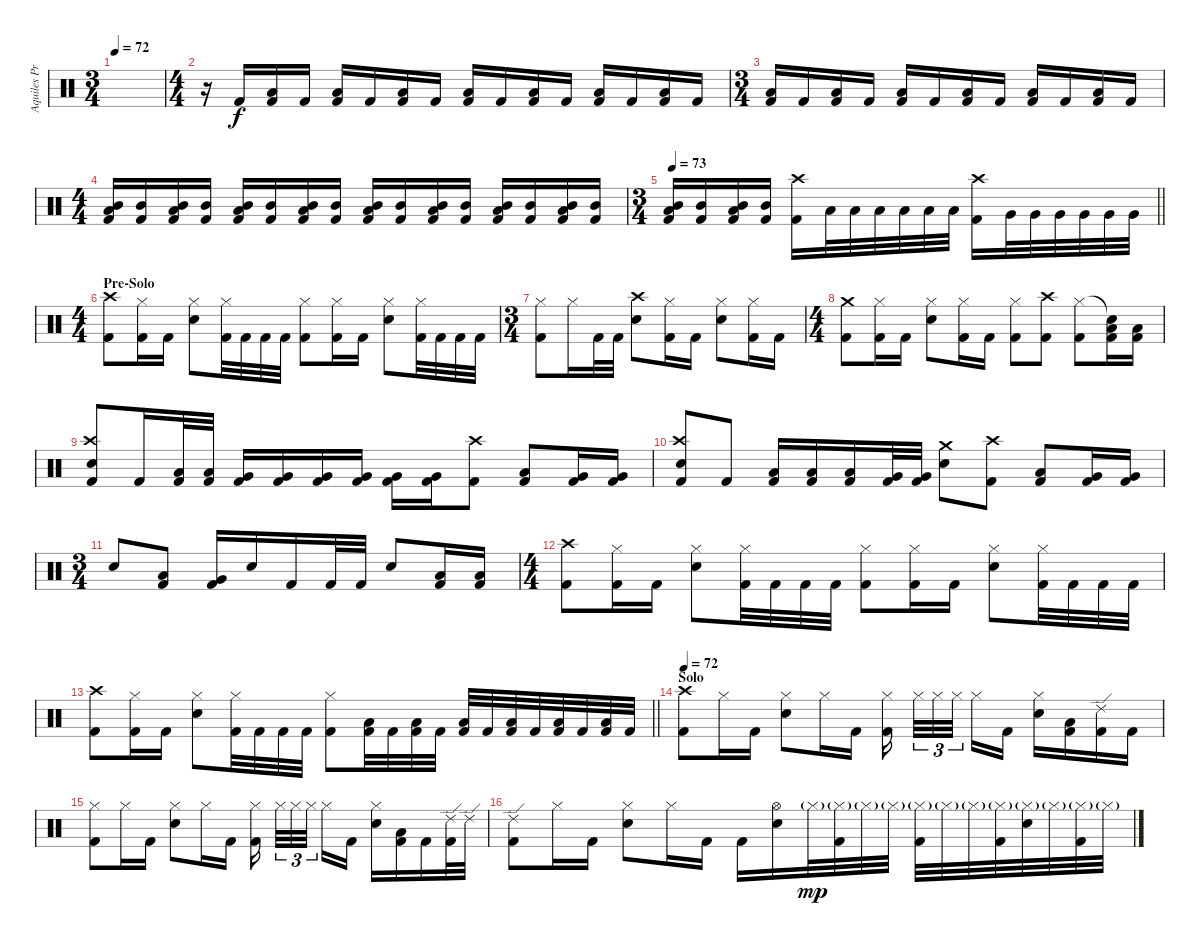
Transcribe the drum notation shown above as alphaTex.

\track ("Aquiles Priester" "Aquiles Pr") {instrument percussion}
\staff {score}
\articulation defaults
\ts (3 4)
\tempo 72
\clef neutral
\ks c
|
\ts (4 4)
r.16 "Kick (hit) 2".16{volume 2} ("Low Tom (hit)" "Kick (hit) 2").16{volume 16} "Kick (hit) 2".16 ("Low Tom (hit)" "Kick (hit) 2").16 "Kick (hit) 2".16 ("Low Tom (hit)" "Kick (hit) 2").16 "Kick (hit) 2".16 ("Low Tom (hit)" "Kick (hit) 2").16 "Kick (hit) 2".16 ("Low Tom (hit)" "Kick (hit) 2").16 "Kick (hit) 2".16 ("Low Tom (hit)" "Kick (hit) 2").16 "Kick (hit) 2".16 ("Low Tom (hit)" "Kick (hit) 2").16 "Kick (hit) 2".16 |
\ts (3 4)
("Low Tom (hit)" "Kick (hit) 2").16 "Kick (hit) 2".16 ("Low Tom (hit)" "Kick (hit) 2").16 "Kick (hit) 2".16 ("Low Tom (hit)" "Kick (hit) 2").16 "Kick (hit) 2".16 ("Low Tom (hit)" "Kick (hit) 2").16 "Kick (hit) 2".16 ("Low Tom (hit)" "Kick (hit) 2").16 "Kick (hit) 2".16 ("Low Tom (hit)" "Kick (hit) 2").16 "Kick (hit) 2".16 |
\ts (4 4)
("Mid Tom (hit)" "Low Tom (hit)" "Kick (hit) 2").16 ("Mid Tom (hit)" "Kick (hit) 2").16 ("Mid Tom (hit)" "Low Tom (hit)" "Kick (hit) 2").16 ("Mid Tom (hit)" "Kick (hit) 2").16 ("Mid Tom (hit)" "Low Tom (hit)" "Kick (hit) 2").16 ("Mid Tom (hit)" "Kick (hit) 2").16 ("Mid Tom (hit)" "Low Tom (hit)" "Kick (hit) 2").16 ("Mid Tom (hit)" "Kick (hit) 2").16 ("Mid Tom (hit)" "Low Tom (hit)" "Kick (hit) 2").16 ("Mid Tom (hit)" "Kick (hit) 2").16 ("Mid Tom (hit)" "Low Tom (hit)" "Kick (hit) 2").16 ("Mid Tom (hit)" "Kick (hit) 2").16 ("Mid Tom (hit)" "Low Tom (hit)" "Kick (hit) 2").16 ("Mid Tom (hit)" "Kick (hit) 2").16 ("Mid Tom (hit)" "Low Tom (hit)" "Kick (hit) 2").16 ("Mid Tom (hit)" "Kick (hit) 2").16 |
\ts (3 4)
\tempo 73
\barLineRight lightlight
("Mid Tom (hit)" "Low Tom (hit)" "Kick (hit) 2").16{volume 16} ("Mid Tom (hit)" "Kick (hit) 2").16 ("Mid Tom (hit)" "Low Tom (hit)" "Kick (hit) 2").16 ("Mid Tom (hit)" "Kick (hit) 2").16 ("Crash high (hit)" "Kick (hit) 2").16 "Low Tom (hit)".32 "Low Tom (hit)".32 "Low Tom (hit)".32 "Low Tom (hit)".32 "Low Tom (hit)".32 "Low Tom (hit)".32 ("Crash high (hit)" "Kick (hit) 2").16 "Very Low Tom (hit)".32 "Very Low Tom (hit)".32 "Very Low Tom (hit)".32 "Very Low Tom (hit)".32 "Very Low Tom (hit)".32 "Very Low Tom (hit)".32 |
\ts (4 4)
\section ("" "Pre-Solo")
("Crash high (hit)" "Kick (hit) 2").8 ("Hi-Hat (closed)" "Kick (hit) 2").16 "Kick (hit) 2".16 ("Hi-Hat (closed)" "Electric Snare (hit)").8 ("Hi-Hat (closed)" "Kick (hit) 2").32 "Kick (hit) 2".32 "Kick (hit) 2".32 "Kick (hit) 2".32 ("Hi-Hat (closed)" "Kick (hit) 2").8 ("Hi-Hat (closed)" "Kick (hit) 2").16 "Kick (hit) 2".16 ("Hi-Hat (closed)" "Electric Snare (hit)").8 ("Hi-Hat (closed)" "Kick (hit) 2").32 "Kick (hit) 2".32 "Kick (hit) 2".32 "Kick (hit) 2".32 |
\ts (3 4)
("Hi-Hat (closed)" "Kick (hit) 2").8 "Hi-Hat (closed)".16 "Kick (hit) 2".32 "Kick (hit) 2".32 ("Crash high (hit)" "Electric Snare (hit)").8 ("Hi-Hat (closed)" "Kick (hit) 2").16 "Kick (hit) 2".16 ("Hi-Hat (closed)" "Electric Snare (hit)").8 ("Hi-Hat (closed)" "Kick (hit) 2").16 "Kick (hit) 2".16 |
\ts (4 4)
("Crash medium (hit)" "Kick (hit) 2").8 ("Hi-Hat (closed)" "Kick (hit) 2").16 "Kick (hit) 2".16 ("Hi-Hat (closed)" "Electric Snare (hit)").8 ("Hi-Hat (closed)" "Kick (hit) 2").16 "Kick (hit) 2".16 ("Hi-Hat (closed)" "Kick (hit) 2").8 ("Crash high (hit)" "Kick (hit) 2").8 ("Hi-Hat (closed)" "Kick (hit) 2").8 ("Snare (hit)"{t} "Low Tom (hit)" "Kick (hit) 2").16 ("Low Tom (hit)" "Kick (hit) 2").16 |
("Crash high (hit)" "Electric Snare (hit)" "Kick (hit) 2").8 "Kick (hit) 2".16 ("Low Tom (hit)" "Kick (hit) 2").32 ("Low Tom (hit)" "Kick (hit) 2").32 ("Very Low Tom (hit)" "Kick (hit) 2").16 ("Very Low Tom (hit)" "Kick (hit) 2").16 ("Very Low Tom (hit)" "Kick (hit) 2").16 ("Very Low Tom (hit)" "Kick (hit) 2").16 ("Very Low Tom (hit)" "Kick (hit) 2").16 ("Very Low Tom (hit)" "Kick (hit) 2").16 ("Crash high (hit)" "Kick (hit) 2").8 ("Low Tom (hit)" "Kick (hit) 2").8 ("Very Low Tom (hit)" "Kick (hit) 2").16 ("Very Low Tom (hit)" "Kick (hit) 2").16 |
("Crash high (hit)" "Electric Snare (hit)" "Kick (hit) 2").8 "Kick (hit) 2".8 ("Low Tom (hit)" "Kick (hit) 2").16 ("Low Tom (hit)" "Kick (hit) 2").16 ("Low Tom (hit)" "Kick (hit) 2").16 ("Very Low Tom (hit)" "Kick (hit) 2").32 ("Very Low Tom (hit)" "Kick (hit) 2").32 ("Crash medium (hit)" "Electric Snare (hit)").8 ("Crash high (hit)" "Kick (hit) 2").8 ("Low Tom (hit)" "Kick (hit) 2").8 ("Very Low Tom (hit)" "Kick (hit) 2").16 ("Very Low Tom (hit)" "Kick (hit) 2").16 |
\ts (3 4)
"Electric Snare (hit)".8 ("Low Tom (hit)" "Kick (hit) 2").8 ("Very Low Tom (hit)" "Kick (hit) 2").16 "Electric Snare (hit)".16 "Kick (hit) 2".16 "Kick (hit) 2".32 "Kick (hit) 2".32 "Electric Snare (hit)".8 ("Low Tom (hit)" "Kick (hit) 2").16 ("Low Tom (hit)" "Kick (hit) 2").16 |
\ts (4 4)
("Crash high (hit)" "Kick (hit) 2").8 ("Hi-Hat (closed)" "Kick (hit) 2").16 "Kick (hit) 2".16 ("Hi-Hat (closed)" "Electric Snare (hit)").8 ("Hi-Hat (closed)" "Kick (hit) 2").32 "Kick (hit) 2".32 "Kick (hit) 2".32 "Kick (hit) 2".32 ("Hi-Hat (closed)" "Kick (hit) 2").8 ("Hi-Hat (closed)" "Kick (hit) 2").16 "Kick (hit) 2".16 ("Hi-Hat (closed)" "Electric Snare (hit)").8 ("Hi-Hat (closed)" "Kick (hit) 2").32 "Kick (hit) 2".32 "Kick (hit) 2".32 "Kick (hit) 2".32 |
\barLineRight lightlight
("Crash high (hit)" "Kick (hit) 2").8 ("Hi-Hat (closed)" "Kick (hit) 2").16 "Kick (hit) 2".16 ("Hi-Hat (closed)" "Electric Snare (hit)").8 ("Hi-Hat (closed)" "Kick (hit) 2").32 "Kick (hit) 2".32 "Kick (hit) 2".32 "Kick (hit) 2".32 ("Hi-Hat (closed)" "Kick (hit) 2").8 ("Low Tom (hit)" "Kick (hit) 2").32 "Kick (hit) 2".32 ("Low Tom (hit)" "Kick (hit) 2").32 "Kick (hit) 2".32 ("Low Tom (hit)" "Kick (hit) 2").32 "Kick (hit) 2".32 ("Low Tom (hit)" "Kick (hit) 2").32 "Kick (hit) 2".32 ("Low Tom (hit)" "Kick (hit) 2").32 "Kick (hit) 2".32 ("Low Tom (hit)" "Kick (hit) 2").32 "Kick (hit) 2".32 |
\section ("" "Solo")
\tempo 72
("Crash high (hit)" "Kick (hit) 2").8 "Hi-Hat (closed)".16 "Kick (hit) 2".16 ("Hi-Hat (closed)" "Electric Snare (hit)").8 "Hi-Hat (closed)".16 "Kick (hit) 2".16 ("Hi-Hat (closed)" "Kick (hit) 2").16 "Hi-Hat (closed)".32{tu (3 2)} "Hi-Hat (closed)".32{tu (3 2)} "Hi-Hat (closed)".32{tu (3 2)} "Hi-Hat (closed)".16 "Kick (hit) 2".16 ("Hi-Hat (closed)" "Electric Snare (hit)").16 ("Low Tom (hit)" "Kick (hit) 2").16 ("Ride (edge) 2" "Kick (hit) 2").16 "Kick (hit) 2".16 |
("Hi-Hat (closed)" "Kick (hit) 2").8 "Hi-Hat (closed)".16 "Kick (hit) 2".16 ("Hi-Hat (closed)" "Electric Snare (hit)").8 "Hi-Hat (closed)".16 "Kick (hit) 2".16 ("Hi-Hat (closed)" "Kick (hit) 2").16 "Hi-Hat (closed)".32{tu (3 2)} "Hi-Hat (closed)".32{tu (3 2)} "Hi-Hat (closed)".32{tu (3 2)} "Hi-Hat (closed)".16 "Kick (hit) 2".16 ("Hi-Hat (closed)" "Electric Snare (hit)").16 ("Low Tom (hit)" "Kick (hit) 2").16 "Kick (hit) 2".16 ("Ride (edge) 2" "Kick (hit) 2").32 "Ride (edge) 2".32 |
("Ride (edge) 2" "Kick (hit) 2").8 "Hi-Hat (closed)".16 "Kick (hit) 2".16 ("Hi-Hat (closed)" "Electric Snare (hit)").8 "Hi-Hat (closed)".16 "Kick (hit) 2".16 "Kick (hit) 2".16 ("Hi-Hat (open)" "Electric Snare (hit)").16 "Hi-Hat (closed)"{g}.32{dy mp} ("Hi-Hat (closed)"{g} "Kick (hit) 2").32 "Hi-Hat (closed)"{g}.32 "Hi-Hat (closed)"{g}.32 ("Hi-Hat (closed)"{g} "Kick (hit) 2").32 "Hi-Hat (closed)"{g}.32 "Hi-Hat (closed)"{g}.32 ("Hi-Hat (closed)"{g} "Kick (hit) 2").32 ("Hi-Hat (closed)"{g} "Electric Snare (hit)").32 "Hi-Hat (closed)"{g}.32 ("Hi-Hat (closed)"{g} "Kick (hit) 2").32 "Hi-Hat (closed)"{g}.32
